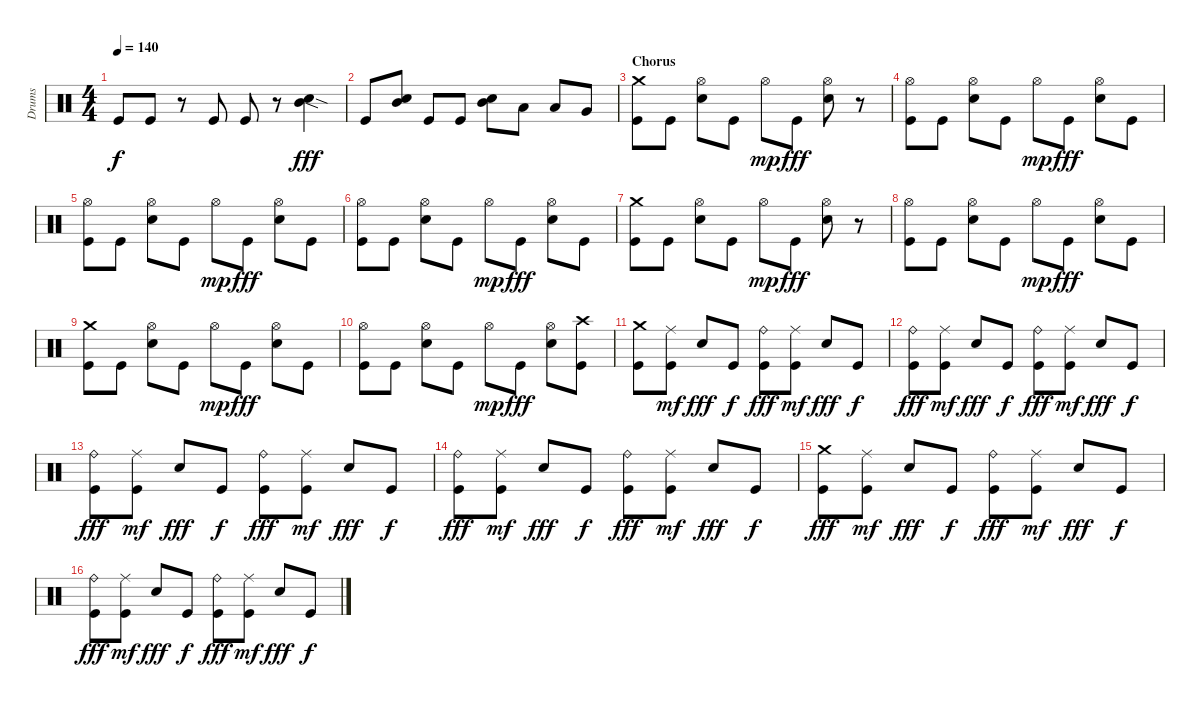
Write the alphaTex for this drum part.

\track ("Drums" "Drums") {instrument percussion}
\staff {score}
\articulation defaults
\ts (4 4)
\tempo 140
\clef neutral
\ks c "Kick (hit)".8{dy f} "Kick (hit)".8
r.8 "Kick (hit)".8 "Kick (hit)".8 r.8 ("Mid Tom (hit)"{sod} "Electric Snare (hit)"{sod}).4{dy fff} |
"Kick (hit)".8 ("Mid Tom (hit)" "Electric Snare (hit)").8 "Kick (hit)".8 "Kick (hit)".8 ("Electric Snare (hit)" "Mid Tom (hit)").8 "Low Tom (hit)".8 "Low Tom (hit)".8 "Very Low Tom (hit)".8 |
\section ("" "Chorus")
("Crash medium (hit)" "Kick (hit)").8 "Kick (hit)".8 ("Hi-Hat (open)" "Electric Snare (hit)").8 "Kick (hit)".8 "Hi-Hat (open)".8{dy mp} "Kick (hit)".8{dy fff} ("Hi-Hat (open)" "Electric Snare (hit)").8 r.8 |
("Hi-Hat (open)" "Kick (hit)").8 "Kick (hit)".8 ("Hi-Hat (open)" "Electric Snare (hit)").8 "Kick (hit)".8 "Hi-Hat (open)".8{dy mp} "Kick (hit)".8{dy fff} ("Hi-Hat (open)" "Electric Snare (hit)").8 "Kick (hit)".8 |
("Hi-Hat (open)" "Kick (hit)").8 "Kick (hit)".8 ("Hi-Hat (open)" "Electric Snare (hit)").8 "Kick (hit)".8 "Hi-Hat (open)".8{dy mp} "Kick (hit)".8{dy fff} ("Hi-Hat (open)" "Electric Snare (hit)").8 "Kick (hit)".8 |
("Hi-Hat (open)" "Kick (hit)").8 "Kick (hit)".8 ("Hi-Hat (open)" "Electric Snare (hit)").8 "Kick (hit)".8 "Hi-Hat (open)".8{dy mp} "Kick (hit)".8{dy fff} ("Hi-Hat (open)" "Electric Snare (hit)").8 "Kick (hit)".8 |
("Crash medium (hit)" "Kick (hit)").8 "Kick (hit)".8 ("Hi-Hat (open)" "Electric Snare (hit)").8 "Kick (hit)".8 "Hi-Hat (open)".8{dy mp} "Kick (hit)".8{dy fff} ("Hi-Hat (open)" "Electric Snare (hit)").8 r.8 |
("Hi-Hat (open)" "Kick (hit)").8 "Kick (hit)".8 ("Hi-Hat (open)" "Electric Snare (hit)").8 "Kick (hit)".8 "Hi-Hat (open)".8{dy mp} "Kick (hit)".8{dy fff} ("Hi-Hat (open)" "Electric Snare (hit)").8 "Kick (hit)".8 |
("Crash medium (hit)" "Kick (hit)").8 "Kick (hit)".8 ("Hi-Hat (open)" "Electric Snare (hit)").8 "Kick (hit)".8 "Hi-Hat (open)".8{dy mp} "Kick (hit)".8{dy fff} ("Hi-Hat (open)" "Electric Snare (hit)").8 "Kick (hit)".8 |
("Hi-Hat (open)" "Kick (hit)").8 "Kick (hit)".8 ("Hi-Hat (open)" "Electric Snare (hit)").8 "Kick (hit)".8 "Hi-Hat (open)".8{dy mp} "Kick (hit)".8{dy fff} ("Hi-Hat (open)" "Electric Snare (hit)").8 ("Crash high (hit)" "Kick (hit)").8 |
("Crash medium (hit)" "Kick (hit)").8 ("Ride (middle)" "Kick (hit)").8{dy mf} "Electric Snare (hit)".8{dy fff} "Kick (hit)".8{dy f} ("Ride (bell)" "Kick (hit)").8{dy fff} ("Ride (middle)" "Kick (hit)").8{dy mf} "Electric Snare (hit)".8{dy fff} "Kick (hit)".8{dy f} |
("Ride (bell)" "Kick (hit)").8{dy fff} ("Ride (middle)" "Kick (hit)").8{dy mf} "Electric Snare (hit)".8{dy fff} "Kick (hit)".8{dy f} ("Ride (bell)" "Kick (hit)").8{dy fff} ("Ride (middle)" "Kick (hit)").8{dy mf} "Electric Snare (hit)".8{dy fff} "Kick (hit)".8{dy f} |
("Ride (bell)" "Kick (hit)").8{dy fff} ("Ride (middle)" "Kick (hit)").8{dy mf} "Electric Snare (hit)".8{dy fff} "Kick (hit)".8{dy f} ("Ride (bell)" "Kick (hit)").8{dy fff} ("Ride (middle)" "Kick (hit)").8{dy mf} "Electric Snare (hit)".8{dy fff} "Kick (hit)".8{dy f} |
("Ride (bell)" "Kick (hit)").8{dy fff} ("Ride (middle)" "Kick (hit)").8{dy mf} "Electric Snare (hit)".8{dy fff} "Kick (hit)".8{dy f} ("Ride (bell)" "Kick (hit)").8{dy fff} ("Ride (middle)" "Kick (hit)").8{dy mf} "Electric Snare (hit)".8{dy fff} "Kick (hit)".8{dy f} |
("Crash medium (hit)" "Kick (hit)").8{dy fff} ("Ride (middle)" "Kick (hit)").8{dy mf} "Electric Snare (hit)".8{dy fff} "Kick (hit)".8{dy f} ("Ride (bell)" "Kick (hit)").8{dy fff} ("Ride (middle)" "Kick (hit)").8{dy mf} "Electric Snare (hit)".8{dy fff} "Kick (hit)".8{dy f} |
("Ride (bell)" "Kick (hit)").8{dy fff} ("Ride (middle)" "Kick (hit)").8{dy mf} "Electric Snare (hit)".8{dy fff} "Kick (hit)".8{dy f} ("Ride (bell)" "Kick (hit)").8{dy fff} ("Ride (middle)" "Kick (hit)").8{dy mf} "Electric Snare (hit)".8{dy fff} "Kick (hit)".8{dy f}
